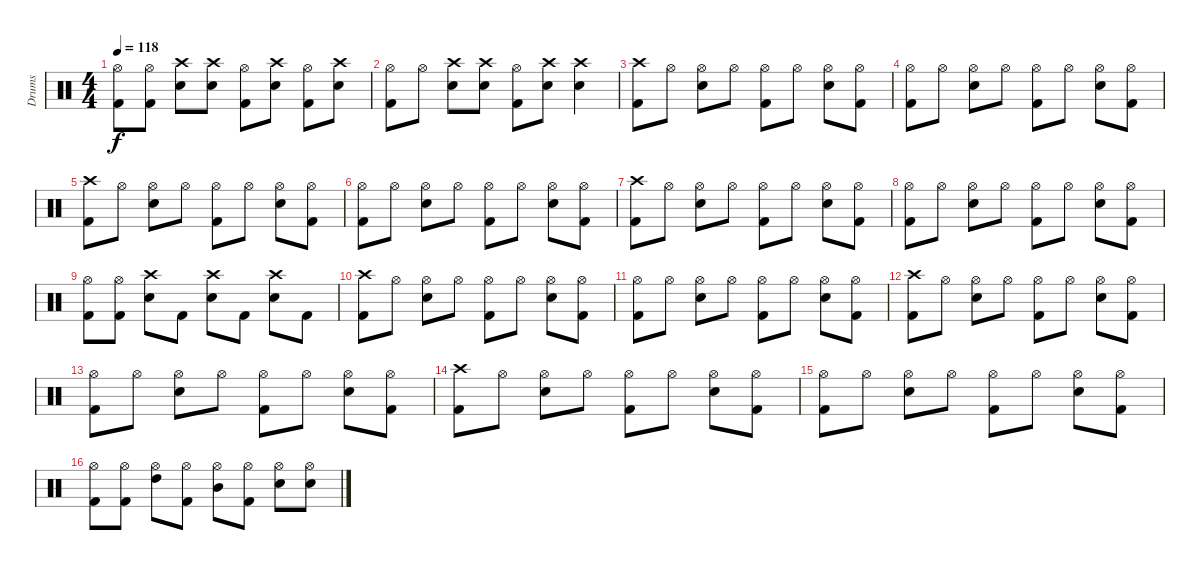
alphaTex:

\track ("Drums" "Drums") {instrument percussion}
\staff {score}
\articulation defaults
\ts (4 4)
\tempo 118
\clef neutral
\ks c
("Hi-Hat (open)" "Kick (hit) 2").8{dy f} ("Hi-Hat (open)" "Kick (hit) 2").8 ("Crash high (hit)" "Snare (hit) 2").8 ("Crash high (hit)" "Snare (hit) 2").8 ("Hi-Hat (open)" "Kick (hit) 2").8 ("Crash high (hit)" "Snare (hit) 2").8 ("Hi-Hat (open)" "Kick (hit) 2").8 ("Crash high (hit)" "Snare (hit) 2").8 |
("Hi-Hat (open)" "Kick (hit) 2").8 "Hi-Hat (open)".8 ("Crash high (hit)" "Snare (hit) 2").8 ("Crash high (hit)" "Snare (hit) 2").8 ("Hi-Hat (open)" "Kick (hit) 2").8 ("Crash high (hit)" "Snare (hit) 2").8 ("Crash high (hit)" "Snare (hit) 2").4 |
("Crash high (hit)" "Kick (hit) 2").8 "Hi-Hat (open)".8 ("Hi-Hat (open)" "Snare (hit) 2").8 "Hi-Hat (open)".8 ("Hi-Hat (open)" "Kick (hit) 2").8 "Hi-Hat (open)".8 ("Hi-Hat (open)" "Snare (hit) 2").8 ("Hi-Hat (open)" "Kick (hit) 2").8 |
("Hi-Hat (open)" "Kick (hit) 2").8 "Hi-Hat (open)".8 ("Hi-Hat (open)" "Snare (hit) 2").8 "Hi-Hat (open)".8 ("Hi-Hat (open)" "Kick (hit) 2").8 "Hi-Hat (open)".8 ("Hi-Hat (open)" "Snare (hit) 2").8 ("Hi-Hat (open)" "Kick (hit) 2").8 |
("Crash high (hit)" "Kick (hit) 2").8 "Hi-Hat (open)".8 ("Hi-Hat (open)" "Snare (hit) 2").8 "Hi-Hat (open)".8 ("Hi-Hat (open)" "Kick (hit) 2").8 "Hi-Hat (open)".8 ("Hi-Hat (open)" "Snare (hit) 2").8 ("Hi-Hat (open)" "Kick (hit) 2").8 |
("Hi-Hat (open)" "Kick (hit) 2").8 "Hi-Hat (open)".8 ("Hi-Hat (open)" "Snare (hit) 2").8 "Hi-Hat (open)".8 ("Hi-Hat (open)" "Kick (hit) 2").8 "Hi-Hat (open)".8 ("Hi-Hat (open)" "Snare (hit) 2").8 ("Hi-Hat (open)" "Kick (hit) 2").8 |
("Crash high (hit)" "Kick (hit) 2").8 "Hi-Hat (open)".8 ("Hi-Hat (open)" "Snare (hit) 2").8 "Hi-Hat (open)".8 ("Hi-Hat (open)" "Kick (hit) 2").8 "Hi-Hat (open)".8 ("Hi-Hat (open)" "Snare (hit) 2").8 ("Hi-Hat (open)" "Kick (hit) 2").8 |
("Hi-Hat (open)" "Kick (hit) 2").8 "Hi-Hat (open)".8 ("Hi-Hat (open)" "Snare (hit) 2").8 "Hi-Hat (open)".8 ("Hi-Hat (open)" "Kick (hit) 2").8 "Hi-Hat (open)".8 ("Hi-Hat (open)" "Snare (hit) 2").8 ("Hi-Hat (open)" "Kick (hit) 2").8 |
("Hi-Hat (open)" "Kick (hit) 2").8 ("Hi-Hat (open)" "Kick (hit) 2").8 ("Crash high (hit)" "Snare (hit) 2").8 "Kick (hit) 2".8 ("Crash high (hit)" "Snare (hit) 2").8 "Kick (hit) 2".8 ("Crash high (hit)" "Snare (hit) 2").8 "Kick (hit) 2".8 |
("Crash high (hit)" "Kick (hit) 2").8{volume 15} "Hi-Hat (open)".8 ("Hi-Hat (open)" "Snare (hit) 2").8 "Hi-Hat (open)".8 ("Hi-Hat (open)" "Kick (hit) 2").8 "Hi-Hat (open)".8 ("Hi-Hat (open)" "Snare (hit) 2").8 ("Hi-Hat (open)" "Kick (hit) 2").8 |
("Hi-Hat (open)" "Kick (hit) 2").8{volume 14} "Hi-Hat (open)".8 ("Hi-Hat (open)" "Snare (hit) 2").8 "Hi-Hat (open)".8 ("Hi-Hat (open)" "Kick (hit) 2").8 "Hi-Hat (open)".8 ("Hi-Hat (open)" "Snare (hit) 2").8 ("Hi-Hat (open)" "Kick (hit) 2").8 |
("Crash high (hit)" "Kick (hit) 2").8{volume 13} "Hi-Hat (open)".8 ("Hi-Hat (open)" "Snare (hit) 2").8 "Hi-Hat (open)".8 ("Hi-Hat (open)" "Kick (hit) 2").8 "Hi-Hat (open)".8 ("Hi-Hat (open)" "Snare (hit) 2").8 ("Hi-Hat (open)" "Kick (hit) 2").8 |
("Hi-Hat (open)" "Kick (hit) 2").8{volume 12} "Hi-Hat (open)".8 ("Hi-Hat (open)" "Snare (hit) 2").8 "Hi-Hat (open)".8 ("Hi-Hat (open)" "Kick (hit) 2").8 "Hi-Hat (open)".8 ("Hi-Hat (open)" "Snare (hit) 2").8 ("Hi-Hat (open)" "Kick (hit) 2").8 |
("Crash high (hit)" "Kick (hit) 2").8{volume 11} "Hi-Hat (open)".8 ("Hi-Hat (open)" "Snare (hit) 2").8 "Hi-Hat (open)".8 ("Hi-Hat (open)" "Kick (hit) 2").8 "Hi-Hat (open)".8 ("Hi-Hat (open)" "Snare (hit) 2").8 ("Hi-Hat (open)" "Kick (hit) 2").8 |
("Hi-Hat (open)" "Kick (hit) 2").8{volume 10} "Hi-Hat (open)".8 ("Hi-Hat (open)" "Snare (hit) 2").8 "Hi-Hat (open)".8 ("Hi-Hat (open)" "Kick (hit) 2").8 "Hi-Hat (open)".8 ("Hi-Hat (open)" "Snare (hit) 2").8 ("Hi-Hat (open)" "Kick (hit) 2").8 |
("Hi-Hat (open)" "Kick (hit) 2").8{volume 9} ("Hi-Hat (open)" "Kick (hit) 2").8 ("Hi-Hat (open)" "High Tom (hit)").8 ("Hi-Hat (open)" "Kick (hit) 2").8 ("Hi-Hat (open)" "Mid Tom (hit)").8 ("Hi-Hat (open)" "Kick (hit) 2").8 ("Hi-Hat (open)" "Snare (hit) 2").8 ("Hi-Hat (open)" "Snare (hit) 2").8
